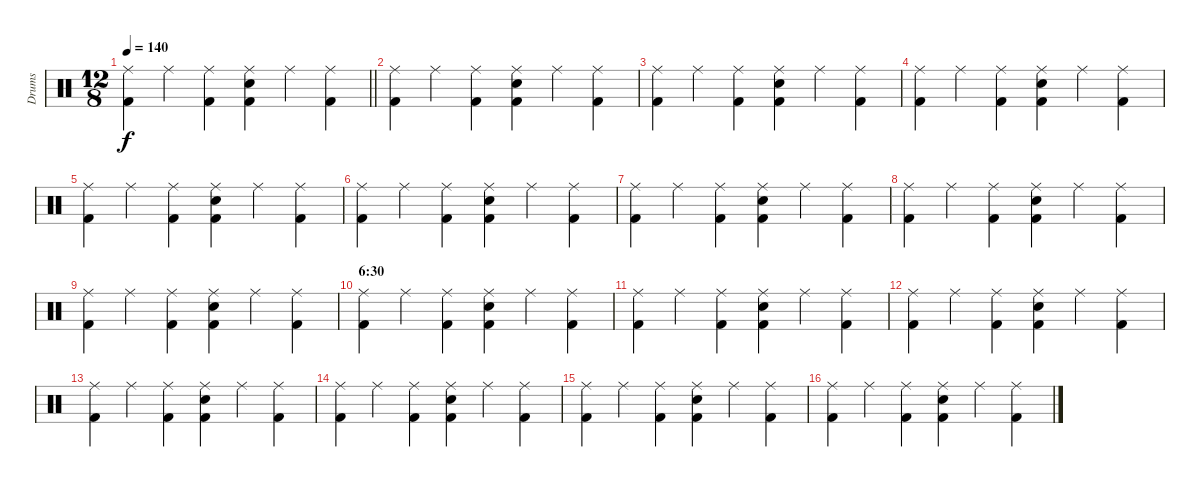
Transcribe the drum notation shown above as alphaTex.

\track ("Drums" "Drums") {instrument percussion}
\staff {score}
\articulation defaults
\ts (12 8)
\tempo 140
\clef neutral
\barLineRight lightlight
\ks c
("Ride (middle)" "Kick (hit) 2").4{dy f} "Ride (middle)".4 ("Ride (middle)" "Kick (hit) 2").4 ("Ride (middle)" "Snare (hit) 2" "Kick (hit) 2").4 "Ride (middle)".4 ("Ride (middle)" "Kick (hit) 2").4 |
("Ride (middle)" "Kick (hit) 2").4 "Ride (middle)".4 ("Ride (middle)" "Kick (hit) 2").4 ("Ride (middle)" "Snare (hit) 2" "Kick (hit) 2").4 "Ride (middle)".4 ("Ride (middle)" "Kick (hit) 2").4 |
("Ride (middle)" "Kick (hit) 2").4 "Ride (middle)".4 ("Ride (middle)" "Kick (hit) 2").4 ("Ride (middle)" "Snare (hit) 2" "Kick (hit) 2").4 "Ride (middle)".4 ("Ride (middle)" "Kick (hit) 2").4 |
("Ride (middle)" "Kick (hit) 2").4 "Ride (middle)".4 ("Ride (middle)" "Kick (hit) 2").4 ("Ride (middle)" "Snare (hit) 2" "Kick (hit) 2").4 "Ride (middle)".4 ("Ride (middle)" "Kick (hit) 2").4 |
("Ride (middle)" "Kick (hit) 2").4 "Ride (middle)".4 ("Ride (middle)" "Kick (hit) 2").4 ("Ride (middle)" "Snare (hit) 2" "Kick (hit) 2").4 "Ride (middle)".4 ("Ride (middle)" "Kick (hit) 2").4 |
("Ride (middle)" "Kick (hit) 2").4 "Ride (middle)".4 ("Ride (middle)" "Kick (hit) 2").4 ("Ride (middle)" "Snare (hit) 2" "Kick (hit) 2").4 "Ride (middle)".4 ("Ride (middle)" "Kick (hit) 2").4 |
("Ride (middle)" "Kick (hit) 2").4 "Ride (middle)".4 ("Ride (middle)" "Kick (hit) 2").4 ("Ride (middle)" "Snare (hit) 2" "Kick (hit) 2").4 "Ride (middle)".4 ("Ride (middle)" "Kick (hit) 2").4 |
("Ride (middle)" "Kick (hit) 2").4 "Ride (middle)".4 ("Ride (middle)" "Kick (hit) 2").4 ("Ride (middle)" "Snare (hit) 2" "Kick (hit) 2").4 "Ride (middle)".4 ("Ride (middle)" "Kick (hit) 2").4 |
("Ride (middle)" "Kick (hit) 2").4 "Ride (middle)".4 ("Ride (middle)" "Kick (hit) 2").4 ("Ride (middle)" "Snare (hit) 2" "Kick (hit) 2").4 "Ride (middle)".4 ("Ride (middle)" "Kick (hit) 2").4 |
\section ("" "6:30")
("Ride (middle)" "Kick (hit) 2").4 "Ride (middle)".4 ("Ride (middle)" "Kick (hit) 2").4 ("Ride (middle)" "Snare (hit) 2" "Kick (hit) 2").4 "Ride (middle)".4 ("Ride (middle)" "Kick (hit) 2").4 |
("Ride (middle)" "Kick (hit) 2").4 "Ride (middle)".4 ("Ride (middle)" "Kick (hit) 2").4 ("Ride (middle)" "Snare (hit) 2" "Kick (hit) 2").4 "Ride (middle)".4 ("Ride (middle)" "Kick (hit) 2").4 |
("Ride (middle)" "Kick (hit) 2").4 "Ride (middle)".4 ("Ride (middle)" "Kick (hit) 2").4 ("Ride (middle)" "Snare (hit) 2" "Kick (hit) 2").4 "Ride (middle)".4 ("Ride (middle)" "Kick (hit) 2").4 |
("Ride (middle)" "Kick (hit) 2").4 "Ride (middle)".4 ("Ride (middle)" "Kick (hit) 2").4 ("Ride (middle)" "Snare (hit) 2" "Kick (hit) 2").4 "Ride (middle)".4 ("Ride (middle)" "Kick (hit) 2").4 |
("Ride (middle)" "Kick (hit) 2").4 "Ride (middle)".4 ("Ride (middle)" "Kick (hit) 2").4 ("Ride (middle)" "Snare (hit) 2" "Kick (hit) 2").4 "Ride (middle)".4 ("Ride (middle)" "Kick (hit) 2").4 |
("Ride (middle)" "Kick (hit) 2").4 "Ride (middle)".4 ("Ride (middle)" "Kick (hit) 2").4 ("Ride (middle)" "Snare (hit) 2" "Kick (hit) 2").4 "Ride (middle)".4 ("Ride (middle)" "Kick (hit) 2").4 |
("Ride (middle)" "Kick (hit) 2").4 "Ride (middle)".4 ("Ride (middle)" "Kick (hit) 2").4 ("Ride (middle)" "Snare (hit) 2" "Kick (hit) 2").4 "Ride (middle)".4 ("Ride (middle)" "Kick (hit) 2").4
